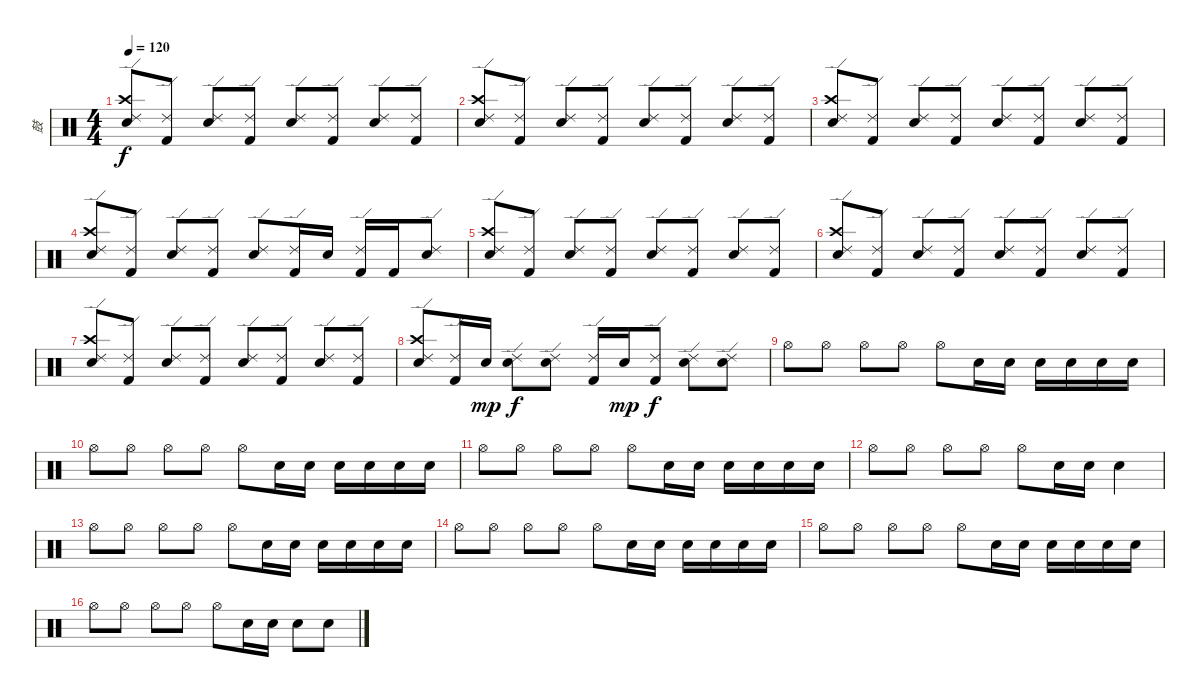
\track ("鼓" "鼓") {instrument percussion}
\staff {score}
\articulation defaults
\ts (4 4)
\tempo 120
\clef neutral
\ks c
("Ride (edge) 2" "Crash high (hit)" "Electric Snare (hit)").8{dy f} ("Ride (edge) 2" "Kick (hit) 2").8 ("Ride (edge) 2" "Electric Snare (hit)").8 ("Ride (edge) 2" "Kick (hit) 2").8 ("Ride (edge) 2" "Electric Snare (hit)").8 ("Ride (edge) 2" "Kick (hit) 2").8 ("Ride (edge) 2" "Electric Snare (hit)").8 ("Ride (edge) 2" "Kick (hit) 2").8 |
("Ride (edge) 2" "Crash high (hit)" "Electric Snare (hit)").8 ("Ride (edge) 2" "Kick (hit) 2").8 ("Ride (edge) 2" "Electric Snare (hit)").8 ("Ride (edge) 2" "Kick (hit) 2").8 ("Ride (edge) 2" "Electric Snare (hit)").8 ("Ride (edge) 2" "Kick (hit) 2").8 ("Ride (edge) 2" "Electric Snare (hit)").8 ("Ride (edge) 2" "Kick (hit) 2").8 |
("Ride (edge) 2" "Crash high (hit)" "Electric Snare (hit)").8 ("Ride (edge) 2" "Kick (hit) 2").8 ("Ride (edge) 2" "Electric Snare (hit)").8 ("Ride (edge) 2" "Kick (hit) 2").8 ("Ride (edge) 2" "Electric Snare (hit)").8 ("Ride (edge) 2" "Kick (hit) 2").8 ("Ride (edge) 2" "Electric Snare (hit)").8 ("Ride (edge) 2" "Kick (hit) 2").8 |
("Ride (edge) 2" "Crash high (hit)" "Electric Snare (hit)").8 ("Ride (edge) 2" "Kick (hit) 2").8 ("Ride (edge) 2" "Electric Snare (hit)").8 ("Ride (edge) 2" "Kick (hit) 2").8 ("Ride (edge) 2" "Electric Snare (hit)").8 ("Ride (edge) 2" "Kick (hit) 2").16 "Electric Snare (hit)".16 ("Ride (edge) 2" "Kick (hit) 2").16 "Kick (hit) 2".16 ("Ride (edge) 2" "Electric Snare (hit)").8 |
("Ride (edge) 2" "Crash high (hit)" "Electric Snare (hit)").8 ("Ride (edge) 2" "Kick (hit) 2").8 ("Ride (edge) 2" "Electric Snare (hit)").8 ("Ride (edge) 2" "Kick (hit) 2").8 ("Ride (edge) 2" "Electric Snare (hit)").8 ("Ride (edge) 2" "Kick (hit) 2").8 ("Ride (edge) 2" "Electric Snare (hit)").8 ("Ride (edge) 2" "Kick (hit) 2").8 |
("Ride (edge) 2" "Crash high (hit)" "Electric Snare (hit)").8 ("Ride (edge) 2" "Kick (hit) 2").8 ("Ride (edge) 2" "Electric Snare (hit)").8 ("Ride (edge) 2" "Kick (hit) 2").8 ("Ride (edge) 2" "Electric Snare (hit)").8 ("Ride (edge) 2" "Kick (hit) 2").8 ("Ride (edge) 2" "Electric Snare (hit)").8 ("Ride (edge) 2" "Kick (hit) 2").8 |
("Ride (edge) 2" "Crash high (hit)" "Electric Snare (hit)").8 ("Ride (edge) 2" "Kick (hit) 2").8 ("Ride (edge) 2" "Electric Snare (hit)").8 ("Ride (edge) 2" "Kick (hit) 2").8 ("Ride (edge) 2" "Electric Snare (hit)").8 ("Ride (edge) 2" "Kick (hit) 2").8 ("Ride (edge) 2" "Electric Snare (hit)").8 ("Ride (edge) 2" "Kick (hit) 2").8 |
("Ride (edge) 2" "Crash high (hit)" "Electric Snare (hit)").8 ("Ride (edge) 2" "Kick (hit) 2").16 "Electric Snare (hit)".16{dy mp} ("Ride (edge) 2" "Electric Snare (hit)").8{dy f} ("Ride (edge) 2" "Electric Snare (hit)").8 ("Ride (edge) 2" "Kick (hit) 2").16 "Electric Snare (hit)".16{dy mp} ("Ride (edge) 2" "Kick (hit) 2").8{dy f} ("Ride (edge) 2" "Electric Snare (hit)").8 ("Ride (edge) 2" "Electric Snare (hit)").8 |
"Hi-Hat (open)".8 "Hi-Hat (open)".8 "Hi-Hat (open)".8 "Hi-Hat (open)".8 "Hi-Hat (open)".8 "Electric Snare (hit)".16 "Electric Snare (hit)".16 "Electric Snare (hit)".16 "Electric Snare (hit)".16 "Electric Snare (hit)".16 "Electric Snare (hit)".16 |
"Hi-Hat (open)".8 "Hi-Hat (open)".8 "Hi-Hat (open)".8 "Hi-Hat (open)".8 "Hi-Hat (open)".8 "Electric Snare (hit)".16 "Electric Snare (hit)".16 "Electric Snare (hit)".16 "Electric Snare (hit)".16 "Electric Snare (hit)".16 "Electric Snare (hit)".16 |
"Hi-Hat (open)".8 "Hi-Hat (open)".8 "Hi-Hat (open)".8 "Hi-Hat (open)".8 "Hi-Hat (open)".8 "Electric Snare (hit)".16 "Electric Snare (hit)".16 "Electric Snare (hit)".16 "Electric Snare (hit)".16 "Electric Snare (hit)".16 "Electric Snare (hit)".16 |
"Hi-Hat (open)".8 "Hi-Hat (open)".8 "Hi-Hat (open)".8 "Hi-Hat (open)".8 "Hi-Hat (open)".8 "Electric Snare (hit)".16 "Electric Snare (hit)".16 "Electric Snare (hit)".4 |
"Hi-Hat (open)".8 "Hi-Hat (open)".8 "Hi-Hat (open)".8 "Hi-Hat (open)".8 "Hi-Hat (open)".8 "Electric Snare (hit)".16 "Electric Snare (hit)".16 "Electric Snare (hit)".16 "Electric Snare (hit)".16 "Electric Snare (hit)".16 "Electric Snare (hit)".16 |
"Hi-Hat (open)".8 "Hi-Hat (open)".8 "Hi-Hat (open)".8 "Hi-Hat (open)".8 "Hi-Hat (open)".8 "Electric Snare (hit)".16 "Electric Snare (hit)".16 "Electric Snare (hit)".16 "Electric Snare (hit)".16 "Electric Snare (hit)".16 "Electric Snare (hit)".16 |
"Hi-Hat (open)".8 "Hi-Hat (open)".8 "Hi-Hat (open)".8 "Hi-Hat (open)".8 "Hi-Hat (open)".8 "Electric Snare (hit)".16 "Electric Snare (hit)".16 "Electric Snare (hit)".16 "Electric Snare (hit)".16 "Electric Snare (hit)".16 "Electric Snare (hit)".16 |
"Hi-Hat (open)".8 "Hi-Hat (open)".8 "Hi-Hat (open)".8 "Hi-Hat (open)".8 "Hi-Hat (open)".8 "Electric Snare (hit)".16 "Electric Snare (hit)".16 "Electric Snare (hit)".8 "Electric Snare (hit)".8
